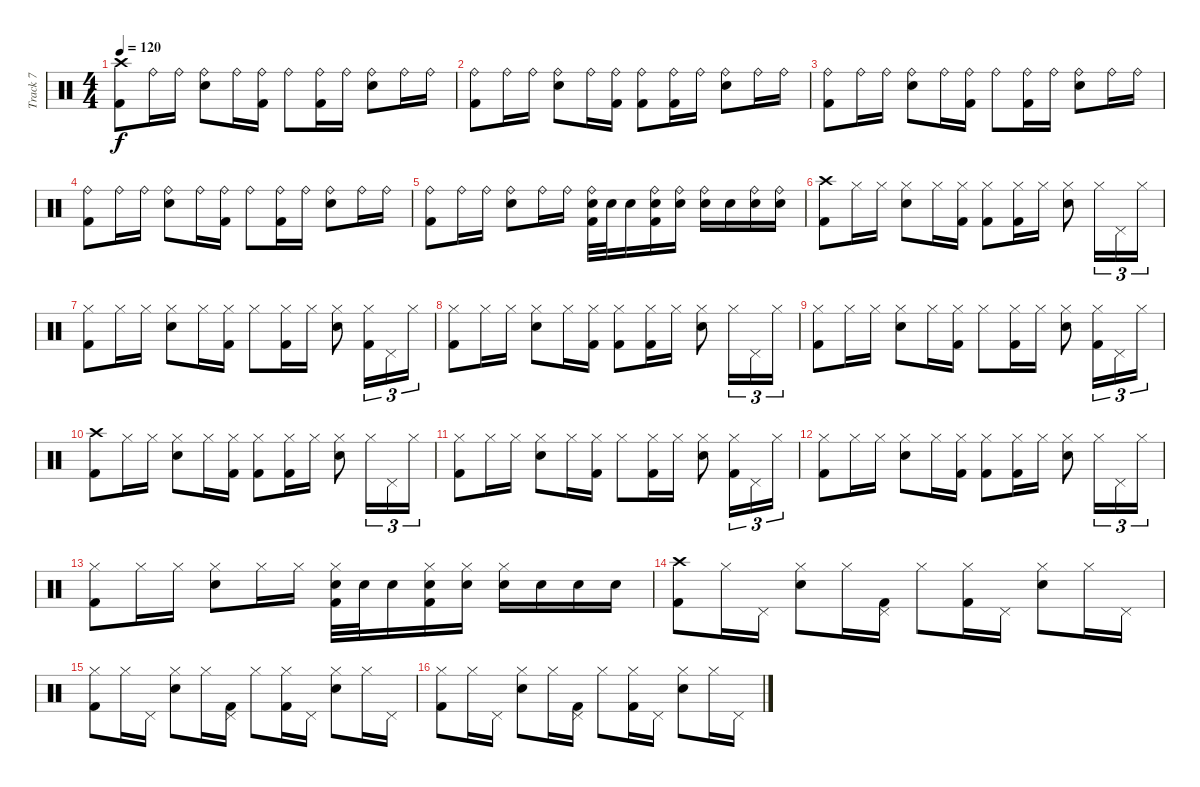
\track ("Track 7" "Track 7") {instrument percussion}
\staff {score}
\articulation defaults
\ts (4 4)
\tempo 120
\clef neutral
\ks c
("Crash high (hit)" "Kick (hit) 2").8{dy f} "Ride (bell)".16 "Ride (bell)".16 ("Ride (bell)" "Snare (hit) 2").8 "Ride (bell)".16 ("Ride (bell)" "Kick (hit) 2").16 "Ride (bell)".8 ("Ride (bell)" "Kick (hit) 2").16 "Ride (bell)".16 ("Ride (bell)" "Snare (hit) 2").8 "Ride (bell)".16 "Ride (bell)".16 |
("Ride (bell)" "Kick (hit) 2").8 "Ride (bell)".16 "Ride (bell)".16 ("Ride (bell)" "Snare (hit) 2").8 "Ride (bell)".16 ("Ride (bell)" "Kick (hit) 2").16 ("Ride (bell)" "Kick (hit) 2").8 ("Ride (bell)" "Kick (hit) 2").16 "Ride (bell)".16 ("Ride (bell)" "Snare (hit) 2").8 "Ride (bell)".16 "Ride (bell)".16 |
("Ride (bell)" "Kick (hit) 2").8 "Ride (bell)".16 "Ride (bell)".16 ("Ride (bell)" "Snare (hit) 2").8 "Ride (bell)".16 ("Ride (bell)" "Kick (hit) 2").16 "Ride (bell)".8 ("Ride (bell)" "Kick (hit) 2").16 "Ride (bell)".16 ("Ride (bell)" "Snare (hit) 2").8 "Ride (bell)".16 "Ride (bell)".16 |
("Ride (bell)" "Kick (hit) 2").8 "Ride (bell)".16 "Ride (bell)".16 ("Ride (bell)" "Snare (hit) 2").8 "Ride (bell)".16 ("Ride (bell)" "Kick (hit) 2").16 "Ride (bell)".8 ("Ride (bell)" "Kick (hit) 2").16 "Ride (bell)".16 ("Ride (bell)" "Snare (hit) 2").8 "Ride (bell)".16 "Ride (bell)".16 |
("Ride (bell)" "Kick (hit) 2").8 "Ride (bell)".16 "Ride (bell)".16 ("Ride (bell)" "Snare (hit) 2").8 "Ride (bell)".16 "Ride (bell)".16 ("Ride (bell)" "Snare (hit) 2" "Kick (hit) 2").32 "Snare (hit) 2".32 "Snare (hit) 2".16 ("Ride (bell)" "Snare (hit) 2" "Kick (hit) 2").16 ("Ride (bell)" "Snare (hit) 2").16 ("Ride (bell)" "Snare (hit) 2").16 "Snare (hit) 2".16 ("Ride (bell)" "Snare (hit) 2").16 ("Ride (bell)" "Snare (hit) 2").16 |
("Crash high (hit)" "Kick (hit) 2").8 "Hi-Hat (closed)".16 "Hi-Hat (closed)".16 ("Hi-Hat (closed)" "Snare (hit) 2").8 "Hi-Hat (closed)".16 ("Hi-Hat (closed)" "Kick (hit) 2").16 ("Hi-Hat (closed)" "Kick (hit) 2").8 ("Hi-Hat (closed)" "Kick (hit) 2").16 "Hi-Hat (closed)".16 ("Hi-Hat (closed)" "Snare (hit) 2").8 "Hi-Hat (closed)".16{tu (3 2)} "Pedal Hi-Hat (hit)".16{tu (3 2)} "Hi-Hat (closed)".16{tu (3 2)} |
("Hi-Hat (closed)" "Kick (hit) 2").8 "Hi-Hat (closed)".16 "Hi-Hat (closed)".16 ("Hi-Hat (closed)" "Snare (hit) 2").8 "Hi-Hat (closed)".16 ("Hi-Hat (closed)" "Kick (hit) 2").16 "Hi-Hat (closed)".8 ("Hi-Hat (closed)" "Kick (hit) 2").16 "Hi-Hat (closed)".16 ("Hi-Hat (closed)" "Snare (hit) 2").8 ("Hi-Hat (closed)" "Kick (hit) 2").16{tu (3 2)} "Pedal Hi-Hat (hit)".16{tu (3 2)} "Hi-Hat (closed)".16{tu (3 2)} |
("Hi-Hat (closed)" "Kick (hit) 2").8 "Hi-Hat (closed)".16 "Hi-Hat (closed)".16 ("Hi-Hat (closed)" "Snare (hit) 2").8 "Hi-Hat (closed)".16 ("Hi-Hat (closed)" "Kick (hit) 2").16 ("Hi-Hat (closed)" "Kick (hit) 2").8 ("Hi-Hat (closed)" "Kick (hit) 2").16 "Hi-Hat (closed)".16 ("Hi-Hat (closed)" "Snare (hit) 2").8 "Hi-Hat (closed)".16{tu (3 2)} "Pedal Hi-Hat (hit)".16{tu (3 2)} "Hi-Hat (closed)".16{tu (3 2)} |
("Hi-Hat (closed)" "Kick (hit) 2").8 "Hi-Hat (closed)".16 "Hi-Hat (closed)".16 ("Hi-Hat (closed)" "Snare (hit) 2").8 "Hi-Hat (closed)".16 ("Hi-Hat (closed)" "Kick (hit) 2").16 "Hi-Hat (closed)".8 ("Hi-Hat (closed)" "Kick (hit) 2").16 "Hi-Hat (closed)".16 ("Hi-Hat (closed)" "Snare (hit) 2").8 ("Hi-Hat (closed)" "Kick (hit) 2").16{tu (3 2)} "Pedal Hi-Hat (hit)".16{tu (3 2)} "Hi-Hat (closed)".16{tu (3 2)} |
("Crash high (hit)" "Kick (hit) 2").8 "Hi-Hat (closed)".16 "Hi-Hat (closed)".16 ("Hi-Hat (closed)" "Snare (hit) 2").8 "Hi-Hat (closed)".16 ("Hi-Hat (closed)" "Kick (hit) 2").16 ("Hi-Hat (closed)" "Kick (hit) 2").8 ("Hi-Hat (closed)" "Kick (hit) 2").16 "Hi-Hat (closed)".16 ("Hi-Hat (closed)" "Snare (hit) 2").8 "Hi-Hat (closed)".16{tu (3 2)} "Pedal Hi-Hat (hit)".16{tu (3 2)} "Hi-Hat (closed)".16{tu (3 2)} |
("Hi-Hat (closed)" "Kick (hit) 2").8 "Hi-Hat (closed)".16 "Hi-Hat (closed)".16 ("Hi-Hat (closed)" "Snare (hit) 2").8 "Hi-Hat (closed)".16 ("Hi-Hat (closed)" "Kick (hit) 2").16 "Hi-Hat (closed)".8 ("Hi-Hat (closed)" "Kick (hit) 2").16 "Hi-Hat (closed)".16 ("Hi-Hat (closed)" "Snare (hit) 2").8 ("Hi-Hat (closed)" "Kick (hit) 2").16{tu (3 2)} "Pedal Hi-Hat (hit)".16{tu (3 2)} "Hi-Hat (closed)".16{tu (3 2)} |
("Hi-Hat (closed)" "Kick (hit) 2").8 "Hi-Hat (closed)".16 "Hi-Hat (closed)".16 ("Hi-Hat (closed)" "Snare (hit) 2").8 "Hi-Hat (closed)".16 ("Hi-Hat (closed)" "Kick (hit) 2").16 ("Hi-Hat (closed)" "Kick (hit) 2").8 ("Hi-Hat (closed)" "Kick (hit) 2").16 "Hi-Hat (closed)".16 ("Hi-Hat (closed)" "Snare (hit) 2").8 "Hi-Hat (closed)".16{tu (3 2)} "Pedal Hi-Hat (hit)".16{tu (3 2)} "Hi-Hat (closed)".16{tu (3 2)} |
("Hi-Hat (closed)" "Kick (hit) 2").8 "Hi-Hat (closed)".16 "Hi-Hat (closed)".16 ("Hi-Hat (closed)" "Snare (hit) 2").8 "Hi-Hat (closed)".16 "Hi-Hat (closed)".16 ("Hi-Hat (closed)" "Snare (hit) 2" "Kick (hit) 2").32 "Snare (hit) 2".32 "Snare (hit) 2".16 ("Hi-Hat (closed)" "Snare (hit) 2" "Kick (hit) 2").16 ("Hi-Hat (closed)" "Snare (hit) 2").16 ("Hi-Hat (closed)" "Snare (hit) 2").16 "Snare (hit) 2".16 "Snare (hit) 2".16 "Snare (hit) 2".16 |
("Crash high (hit)" "Kick (hit) 2").8 "Hi-Hat (closed)".16 "Pedal Hi-Hat (hit)".16 ("Hi-Hat (closed)" "Snare (hit) 2").8 "Hi-Hat (closed)".16 ("Pedal Hi-Hat (hit)" "Kick (hit) 2").16 "Hi-Hat (closed)".8 ("Hi-Hat (closed)" "Kick (hit) 2").16 "Pedal Hi-Hat (hit)".16 ("Hi-Hat (closed)" "Snare (hit) 2").8 "Hi-Hat (closed)".16 "Pedal Hi-Hat (hit)".16 |
("Hi-Hat (closed)" "Kick (hit) 2").8 "Hi-Hat (closed)".16 "Pedal Hi-Hat (hit)".16 ("Hi-Hat (closed)" "Snare (hit) 2").8 "Hi-Hat (closed)".16 ("Pedal Hi-Hat (hit)" "Kick (hit) 2").16 "Hi-Hat (closed)".8 ("Hi-Hat (closed)" "Kick (hit) 2").16 "Pedal Hi-Hat (hit)".16 ("Hi-Hat (closed)" "Snare (hit) 2").8 "Hi-Hat (closed)".16 "Pedal Hi-Hat (hit)".16 |
("Hi-Hat (closed)" "Kick (hit) 2").8 "Hi-Hat (closed)".16 "Pedal Hi-Hat (hit)".16 ("Hi-Hat (closed)" "Snare (hit) 2").8 "Hi-Hat (closed)".16 ("Pedal Hi-Hat (hit)" "Kick (hit) 2").16 "Hi-Hat (closed)".8 ("Hi-Hat (closed)" "Kick (hit) 2").16 "Pedal Hi-Hat (hit)".16 ("Hi-Hat (closed)" "Snare (hit) 2").8 "Hi-Hat (closed)".16 "Pedal Hi-Hat (hit)".16
